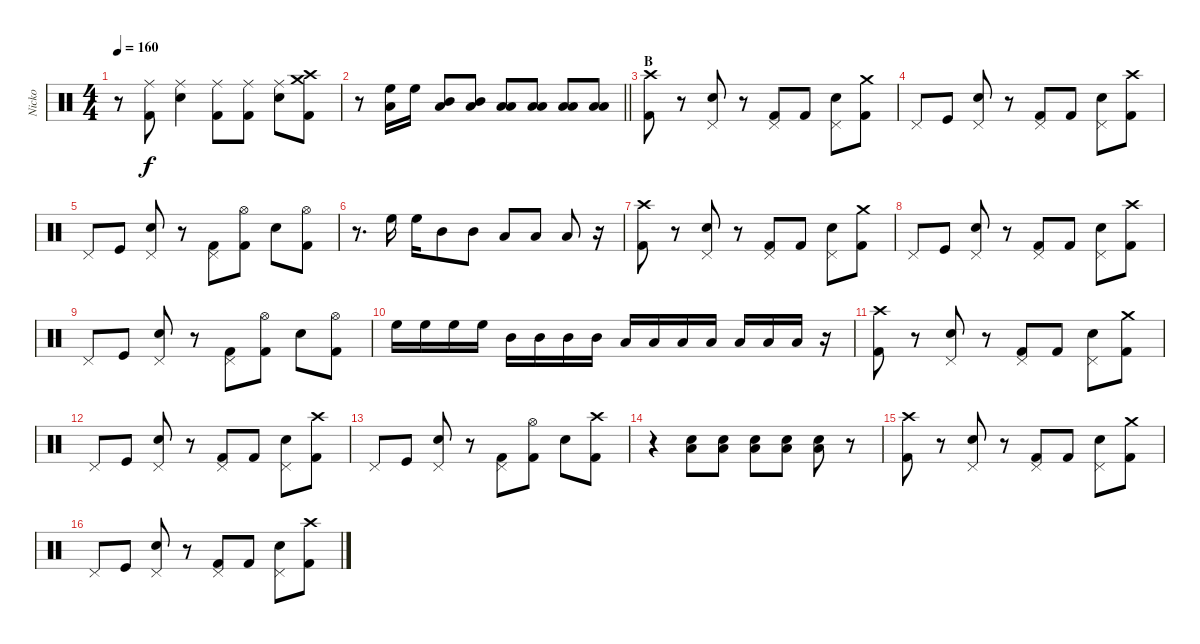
\track ("Nicko" "Nicko") {instrument percussion}
\staff {score}
\articulation defaults
\ts (4 4)
\tempo 160
\clef neutral
\ks c
r.8{dy f} ("Ride (middle)" "Kick (hit) 2").8 ("Ride (middle)" "Snare (hit) 2").4 ("Ride (middle)" "Kick (hit) 2").8 ("Ride (middle)" "Kick (hit) 2").8 ("Ride (middle)" "Snare (hit) 2").8 ("Crash high (hit)" "Crash medium (hit)" "Kick (hit) 2").8 |
\barLineRight lightlight
r.8 ("High Floor Tom (hit)" "Low Floor Tom (hit)").16 "High Floor Tom (hit)".16 ("Mid Tom (hit)" "Low Floor Tom (hit)").8 ("Mid Tom (hit)" "Low Floor Tom (hit)").8 ("Low Tom (hit)" "Low Floor Tom (hit)").8 ("Low Tom (hit)" "Low Floor Tom (hit)").8 ("Low Floor Tom (hit)" "Low Floor Tom (hit)").8 ("Low Floor Tom (hit)" "Low Floor Tom (hit)").8 |
\section ("" "B")
("Crash high (hit)" "Kick (hit) 2").8 r.8 ("Pedal Hi-Hat (hit)" "Snare (hit) 2").8 r.8 ("Pedal Hi-Hat (hit)" "Kick (hit) 2").8 "Kick (hit) 2".8 ("Pedal Hi-Hat (hit)" "Snare (hit) 2").8 ("Crash medium (hit)" "Kick (hit) 2").8 |
"Pedal Hi-Hat (hit)".8 "Kick (hit)".8 ("Pedal Hi-Hat (hit)" "Snare (hit) 2").8 r.8 ("Pedal Hi-Hat (hit)" "Kick (hit) 2").8 "Kick (hit) 2".8 ("Pedal Hi-Hat (hit)" "Snare (hit) 2").8 ("Crash high (hit)" "Kick (hit) 2").8 |
"Pedal Hi-Hat (hit)".8 "Kick (hit)".8 ("Pedal Hi-Hat (hit)" "Snare (hit) 2").8 r.8 ("Pedal Hi-Hat (hit)" "Kick (hit) 2").8 ("Hi-Hat (open)" "Kick (hit) 2").8 "Snare (hit) 2".8 ("Hi-Hat (open)" "Kick (hit) 2").8 |
r.8{d} "High Floor Tom (hit)".16 "High Floor Tom (hit)".16 "Mid Tom (hit)".8 "Mid Tom (hit)".8 "Low Tom (hit)".8 "Low Tom (hit)".8 "Low Floor Tom (hit)".8 r.16 |
("Crash high (hit)" "Kick (hit) 2").8 r.8 ("Pedal Hi-Hat (hit)" "Snare (hit) 2").8 r.8 ("Pedal Hi-Hat (hit)" "Kick (hit) 2").8 "Kick (hit) 2".8 ("Pedal Hi-Hat (hit)" "Snare (hit) 2").8 ("Crash medium (hit)" "Kick (hit) 2").8 |
"Pedal Hi-Hat (hit)".8 "Kick (hit)".8 ("Pedal Hi-Hat (hit)" "Snare (hit) 2").8 r.8 ("Pedal Hi-Hat (hit)" "Kick (hit) 2").8 "Kick (hit) 2".8 ("Pedal Hi-Hat (hit)" "Snare (hit) 2").8 ("Crash high (hit)" "Kick (hit) 2").8 |
"Pedal Hi-Hat (hit)".8 "Kick (hit)".8 ("Pedal Hi-Hat (hit)" "Snare (hit) 2").8 r.8 ("Pedal Hi-Hat (hit)" "Kick (hit) 2").8 ("Hi-Hat (open)" "Kick (hit) 2").8 "Snare (hit) 2".8 ("Hi-Hat (open)" "Kick (hit) 2").8 |
"High Floor Tom (hit)".16 "High Floor Tom (hit)".16 "High Floor Tom (hit)".16 "High Floor Tom (hit)".16 "Mid Tom (hit)".16 "Mid Tom (hit)".16 "Mid Tom (hit)".16 "Mid Tom (hit)".16 "Low Tom (hit)".16 "Low Tom (hit)".16 "Low Tom (hit)".16 "Low Tom (hit)".16 "Low Floor Tom (hit)".16 "Low Floor Tom (hit)".16 "Low Floor Tom (hit)".16 r.16 |
("Crash high (hit)" "Kick (hit) 2").8 r.8 ("Pedal Hi-Hat (hit)" "Snare (hit) 2").8 r.8 ("Pedal Hi-Hat (hit)" "Kick (hit) 2").8 "Kick (hit) 2".8 ("Pedal Hi-Hat (hit)" "Snare (hit) 2").8 ("Crash medium (hit)" "Kick (hit) 2").8 |
"Pedal Hi-Hat (hit)".8 "Kick (hit)".8 ("Pedal Hi-Hat (hit)" "Snare (hit) 2").8 r.8 ("Pedal Hi-Hat (hit)" "Kick (hit) 2").8 "Kick (hit) 2".8 ("Pedal Hi-Hat (hit)" "Snare (hit) 2").8 ("Crash high (hit)" "Kick (hit) 2").8 |
"Pedal Hi-Hat (hit)".8 "Kick (hit)".8 ("Pedal Hi-Hat (hit)" "Snare (hit) 2").8 r.8 ("Pedal Hi-Hat (hit)" "Kick (hit) 2").8 ("Hi-Hat (open)" "Kick (hit) 2").8 "Snare (hit) 2".8 ("Crash high (hit)" "Kick (hit) 2").8 |
r.4 ("Snare (hit) 2" "Low Floor Tom (hit)").8 ("Snare (hit) 2" "Low Floor Tom (hit)").8 ("Snare (hit) 2" "Low Floor Tom (hit)").8 ("Snare (hit) 2" "Low Floor Tom (hit)").8 ("Snare (hit) 2" "Low Floor Tom (hit)").8 r.8 |
("Crash high (hit)" "Kick (hit) 2").8 r.8 ("Pedal Hi-Hat (hit)" "Snare (hit) 2").8 r.8 ("Pedal Hi-Hat (hit)" "Kick (hit) 2").8 "Kick (hit) 2".8 ("Pedal Hi-Hat (hit)" "Snare (hit) 2").8 ("Crash medium (hit)" "Kick (hit) 2").8 |
"Pedal Hi-Hat (hit)".8 "Kick (hit)".8 ("Pedal Hi-Hat (hit)" "Snare (hit) 2").8 r.8 ("Pedal Hi-Hat (hit)" "Kick (hit) 2").8 "Kick (hit) 2".8 ("Pedal Hi-Hat (hit)" "Snare (hit) 2").8 ("Crash high (hit)" "Kick (hit) 2").8
